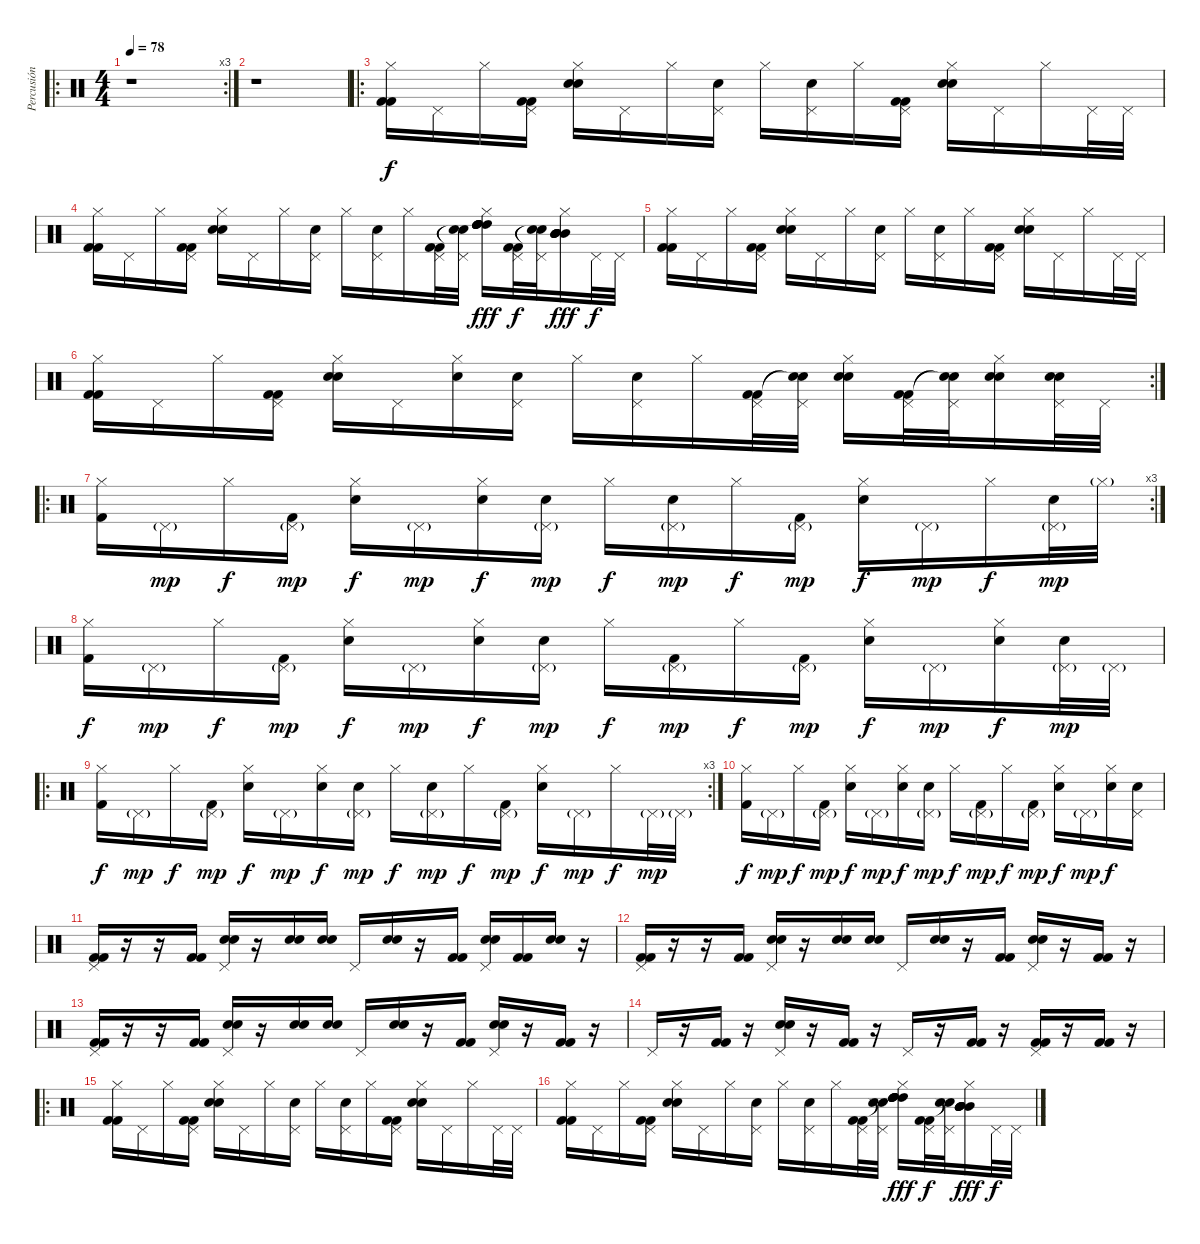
\track ("Percusión" "Percusión") {instrument percussion}
\staff {score}
\articulation defaults
\ro
\rc 3
\ts (4 4)
\tempo 78
\clef neutral
\ks c
r.1{dy f} |
r.1 |
\ro
("Hi-Hat (closed)" "Kick (hit) 2" "Kick (hit) 2").16 "Pedal Hi-Hat (hit)".16 "Hi-Hat (closed)".16 ("Pedal Hi-Hat (hit)" "Kick (hit) 2" "Kick (hit) 2").16 ("Hi-Hat (closed)" "Electric Snare (hit)" "Electric Snare (hit)").16 "Pedal Hi-Hat (hit)".16 "Hi-Hat (closed)".16 ("Pedal Hi-Hat (hit)" "Electric Snare (hit)").16 "Hi-Hat (closed)".16 ("Pedal Hi-Hat (hit)" "Electric Snare (hit)").16 "Hi-Hat (closed)".16 ("Pedal Hi-Hat (hit)" "Kick (hit) 2" "Kick (hit) 2").16 ("Hi-Hat (closed)" "Electric Snare (hit)" "Electric Snare (hit)").16 "Pedal Hi-Hat (hit)".16 "Hi-Hat (closed)".16 "Pedal Hi-Hat (hit)".32 "Pedal Hi-Hat (hit)".32 |
("Hi-Hat (closed)" "Kick (hit) 2" "Kick (hit) 2").16 "Pedal Hi-Hat (hit)".16 "Hi-Hat (closed)".16 ("Pedal Hi-Hat (hit)" "Kick (hit) 2" "Kick (hit) 2").16 ("Hi-Hat (closed)" "Electric Snare (hit)" "Electric Snare (hit)").16 "Pedal Hi-Hat (hit)".16 "Hi-Hat (closed)".16 ("Pedal Hi-Hat (hit)" "Electric Snare (hit)").16 "Hi-Hat (closed)".16 ("Pedal Hi-Hat (hit)" "Electric Snare (hit)").16 "Hi-Hat (closed)".16 ("Pedal Hi-Hat (hit)" "Kick (hit) 2" "Kick (hit) 2").32 ("Pedal Hi-Hat (hit)" "Snare (hit)"{t} "Snare (hit)"{t}).32 ("Hi-Hat (closed)" "High Tom (hit)" "High Tom (hit)" "High Tom (hit)" "High Tom (hit)" "High Tom (hit)").16{dy fff} ("Pedal Hi-Hat (hit)" "Kick (hit) 2" "Kick (hit) 2").32{dy f} ("Pedal Hi-Hat (hit)" "Snare (hit)"{t} "Snare (hit)"{t}).32 ("Hi-Hat (closed)" "Mid Tom (hit)" "Mid Tom (hit)" "Mid Tom (hit)" "Mid Tom (hit)" "Mid Tom (hit)").16{dy fff} "Pedal Hi-Hat (hit)".32{dy f} "Pedal Hi-Hat (hit)".32 |
("Hi-Hat (closed)" "Kick (hit) 2" "Kick (hit) 2").16 "Pedal Hi-Hat (hit)".16 "Hi-Hat (closed)".16 ("Pedal Hi-Hat (hit)" "Kick (hit) 2" "Kick (hit) 2").16 ("Hi-Hat (closed)" "Electric Snare (hit)" "Electric Snare (hit)").16 "Pedal Hi-Hat (hit)".16 "Hi-Hat (closed)".16 ("Pedal Hi-Hat (hit)" "Electric Snare (hit)").16 "Hi-Hat (closed)".16 ("Pedal Hi-Hat (hit)" "Electric Snare (hit)").16 "Hi-Hat (closed)".16 ("Pedal Hi-Hat (hit)" "Kick (hit) 2" "Kick (hit) 2").16 ("Hi-Hat (closed)" "Electric Snare (hit)" "Electric Snare (hit)").16 "Pedal Hi-Hat (hit)".16 "Hi-Hat (closed)".16 "Pedal Hi-Hat (hit)".32 "Pedal Hi-Hat (hit)".32 |
\rc 2
("Hi-Hat (closed)" "Kick (hit) 2" "Kick (hit) 2").16 "Pedal Hi-Hat (hit)".16 "Hi-Hat (closed)".16 ("Pedal Hi-Hat (hit)" "Kick (hit) 2" "Kick (hit) 2").16 ("Hi-Hat (closed)" "Electric Snare (hit)" "Electric Snare (hit)").16 "Pedal Hi-Hat (hit)".16 ("Hi-Hat (closed)" "Electric Snare (hit)").16 ("Pedal Hi-Hat (hit)" "Electric Snare (hit)").16 "Hi-Hat (closed)".16 ("Pedal Hi-Hat (hit)" "Electric Snare (hit)").16 "Hi-Hat (closed)".16 ("Pedal Hi-Hat (hit)" "Kick (hit) 2" "Kick (hit) 2").32 ("Pedal Hi-Hat (hit)" "Snare (hit)"{t} "Snare (hit)"{t}).32 ("Hi-Hat (closed)" "Electric Snare (hit)" "Electric Snare (hit)").16 ("Pedal Hi-Hat (hit)" "Kick (hit) 2" "Kick (hit) 2").32 ("Pedal Hi-Hat (hit)" "Snare (hit)"{t} "Snare (hit)"{t}).32 ("Hi-Hat (closed)" "Electric Snare (hit)" "Electric Snare (hit)").16 ("Pedal Hi-Hat (hit)" "Electric Snare (hit)" "Electric Snare (hit)").32 "Pedal Hi-Hat (hit)".32 |
\ro
\rc 3
("Hi-Hat (closed)" "Kick (hit) 2").16 "Pedal Hi-Hat (hit)"{g}.16{dy mp} "Hi-Hat (closed)".16{dy f} ("Pedal Hi-Hat (hit)"{g} "Kick (hit) 2").16{dy mp} ("Hi-Hat (closed)" "Electric Snare (hit)").16{dy f} "Pedal Hi-Hat (hit)"{g}.16{dy mp} ("Hi-Hat (closed)" "Electric Snare (hit)").16{dy f} ("Pedal Hi-Hat (hit)"{g} "Electric Snare (hit)").16{dy mp} "Hi-Hat (closed)".16{dy f} ("Pedal Hi-Hat (hit)"{g} "Electric Snare (hit)").16{dy mp} "Hi-Hat (closed)".16{dy f} ("Pedal Hi-Hat (hit)"{g} "Kick (hit) 2").16{dy mp} ("Hi-Hat (closed)" "Electric Snare (hit)").16{dy f} "Pedal Hi-Hat (hit)"{g}.16{dy mp} "Hi-Hat (closed)".16{dy f} ("Pedal Hi-Hat (hit)"{g} "Electric Snare (hit)").32{dy mp} "Hi-Hat (closed)"{g}.32 |
("Hi-Hat (closed)" "Kick (hit) 2").16{dy f} "Pedal Hi-Hat (hit)"{g}.16{dy mp} "Hi-Hat (closed)".16{dy f} ("Pedal Hi-Hat (hit)"{g} "Kick (hit) 2").16{dy mp} ("Hi-Hat (closed)" "Electric Snare (hit)").16{dy f} "Pedal Hi-Hat (hit)"{g}.16{dy mp} ("Hi-Hat (closed)" "Electric Snare (hit)").16{dy f} ("Pedal Hi-Hat (hit)"{g} "Electric Snare (hit)").16{dy mp} "Hi-Hat (closed)".16{dy f} ("Pedal Hi-Hat (hit)"{g} "Kick (hit) 2").16{dy mp} "Hi-Hat (closed)".16{dy f} ("Pedal Hi-Hat (hit)"{g} "Kick (hit) 2").16{dy mp} ("Hi-Hat (closed)" "Electric Snare (hit)").16{dy f} "Pedal Hi-Hat (hit)"{g}.16{dy mp} ("Hi-Hat (closed)" "Electric Snare (hit)").16{dy f} ("Pedal Hi-Hat (hit)"{g} "Electric Snare (hit)").32{dy mp} "Pedal Hi-Hat (hit)"{g}.32 |
\ro
\rc 3
("Hi-Hat (closed)" "Kick (hit) 2").16{dy f} "Pedal Hi-Hat (hit)"{g}.16{dy mp} "Hi-Hat (closed)".16{dy f} ("Pedal Hi-Hat (hit)"{g} "Kick (hit) 2").16{dy mp} ("Hi-Hat (closed)" "Electric Snare (hit)").16{dy f} "Pedal Hi-Hat (hit)"{g}.16{dy mp} ("Hi-Hat (closed)" "Electric Snare (hit)").16{dy f} ("Pedal Hi-Hat (hit)"{g} "Electric Snare (hit)").16{dy mp} "Hi-Hat (closed)".16{dy f} ("Pedal Hi-Hat (hit)"{g} "Electric Snare (hit)").16{dy mp} "Hi-Hat (closed)".16{dy f} ("Pedal Hi-Hat (hit)"{g} "Kick (hit) 2").16{dy mp} ("Hi-Hat (closed)" "Electric Snare (hit)").16{dy f} "Pedal Hi-Hat (hit)"{g}.16{dy mp} "Hi-Hat (closed)".16{dy f} "Pedal Hi-Hat (hit)"{g}.32{dy mp} "Pedal Hi-Hat (hit)"{g}.32 |
("Hi-Hat (closed)" "Kick (hit) 2").16{dy f} "Pedal Hi-Hat (hit)"{g}.16{dy mp} "Hi-Hat (closed)".16{dy f} ("Pedal Hi-Hat (hit)"{g} "Kick (hit) 2").16{dy mp} ("Hi-Hat (closed)" "Electric Snare (hit)").16{dy f} "Pedal Hi-Hat (hit)"{g}.16{dy mp} ("Hi-Hat (closed)" "Electric Snare (hit)").16{dy f} ("Pedal Hi-Hat (hit)"{g} "Electric Snare (hit)").16{dy mp} "Hi-Hat (closed)".16{dy f} ("Pedal Hi-Hat (hit)"{g} "Kick (hit) 2").16{dy mp} "Hi-Hat (closed)".16{dy f} ("Pedal Hi-Hat (hit)"{g} "Kick (hit) 2").16{dy mp} ("Hi-Hat (closed)" "Electric Snare (hit)").16{dy f} "Pedal Hi-Hat (hit)"{g}.16{dy mp} ("Hi-Hat (closed)" "Electric Snare (hit)").16{dy f} ("Pedal Hi-Hat (hit)" "Electric Snare (hit)").16 |
("Pedal Hi-Hat (hit)" "Kick (hit) 2" "Kick (hit) 2").16 r.16 r.16 ("Kick (hit) 2" "Kick (hit) 2").16 ("Pedal Hi-Hat (hit)" "Electric Snare (hit)" "Electric Snare (hit)").16 r.16 ("Electric Snare (hit)" "Electric Snare (hit)").16 ("Electric Snare (hit)" "Electric Snare (hit)").16 "Pedal Hi-Hat (hit)".16 ("Electric Snare (hit)" "Electric Snare (hit)").16 r.16 ("Kick (hit) 2" "Kick (hit) 2").16 ("Pedal Hi-Hat (hit)" "Electric Snare (hit)" "Electric Snare (hit)").16 ("Kick (hit) 2" "Kick (hit) 2").16 ("Electric Snare (hit)" "Electric Snare (hit)").16 r.16 |
("Pedal Hi-Hat (hit)" "Kick (hit) 2" "Kick (hit) 2").16 r.16 r.16 ("Kick (hit) 2" "Kick (hit) 2").16 ("Pedal Hi-Hat (hit)" "Electric Snare (hit)" "Electric Snare (hit)").16 r.16 ("Electric Snare (hit)" "Electric Snare (hit)").16 ("Electric Snare (hit)" "Electric Snare (hit)").16 "Pedal Hi-Hat (hit)".16 ("Electric Snare (hit)" "Electric Snare (hit)").16 r.16 ("Kick (hit) 2" "Kick (hit) 2").16 ("Pedal Hi-Hat (hit)" "Electric Snare (hit)" "Electric Snare (hit)").16 r.16 ("Kick (hit) 2" "Kick (hit) 2").16 r.16 |
("Pedal Hi-Hat (hit)" "Kick (hit) 2" "Kick (hit) 2").16 r.16 r.16 ("Kick (hit) 2" "Kick (hit) 2").16 ("Pedal Hi-Hat (hit)" "Electric Snare (hit)" "Electric Snare (hit)").16 r.16 ("Electric Snare (hit)" "Electric Snare (hit)").16 ("Electric Snare (hit)" "Electric Snare (hit)").16 "Pedal Hi-Hat (hit)".16 ("Electric Snare (hit)" "Electric Snare (hit)").16 r.16 ("Kick (hit) 2" "Kick (hit) 2").16 ("Pedal Hi-Hat (hit)" "Electric Snare (hit)" "Electric Snare (hit)").16 r.16 ("Kick (hit) 2" "Kick (hit) 2").16 r.16 |
"Pedal Hi-Hat (hit)".16 r.16 ("Kick (hit) 2" "Kick (hit) 2").16 r.16 ("Pedal Hi-Hat (hit)" "Electric Snare (hit)" "Electric Snare (hit)").16 r.16 ("Kick (hit) 2" "Kick (hit) 2").16 r.16 "Pedal Hi-Hat (hit)".16 r.16 ("Kick (hit) 2" "Kick (hit) 2").16 r.16 ("Pedal Hi-Hat (hit)" "Kick (hit) 2" "Kick (hit) 2").16 r.16 ("Kick (hit) 2" "Kick (hit) 2").16 r.16 |
\ro
("Hi-Hat (closed)" "Kick (hit) 2" "Kick (hit) 2").16 "Pedal Hi-Hat (hit)".16 "Hi-Hat (closed)".16 ("Pedal Hi-Hat (hit)" "Kick (hit) 2" "Kick (hit) 2").16 ("Hi-Hat (closed)" "Electric Snare (hit)" "Electric Snare (hit)").16 "Pedal Hi-Hat (hit)".16 "Hi-Hat (closed)".16 ("Pedal Hi-Hat (hit)" "Electric Snare (hit)").16 "Hi-Hat (closed)".16 ("Pedal Hi-Hat (hit)" "Electric Snare (hit)").16 "Hi-Hat (closed)".16 ("Pedal Hi-Hat (hit)" "Kick (hit) 2" "Kick (hit) 2").16 ("Hi-Hat (closed)" "Electric Snare (hit)" "Electric Snare (hit)").16 "Pedal Hi-Hat (hit)".16 "Hi-Hat (closed)".16 "Pedal Hi-Hat (hit)".32 "Pedal Hi-Hat (hit)".32 |
("Hi-Hat (closed)" "Kick (hit) 2" "Kick (hit) 2").16 "Pedal Hi-Hat (hit)".16 "Hi-Hat (closed)".16 ("Pedal Hi-Hat (hit)" "Kick (hit) 2" "Kick (hit) 2").16 ("Hi-Hat (closed)" "Electric Snare (hit)" "Electric Snare (hit)").16 "Pedal Hi-Hat (hit)".16 "Hi-Hat (closed)".16 ("Pedal Hi-Hat (hit)" "Electric Snare (hit)").16 "Hi-Hat (closed)".16 ("Pedal Hi-Hat (hit)" "Electric Snare (hit)").16 "Hi-Hat (closed)".16 ("Pedal Hi-Hat (hit)" "Kick (hit) 2" "Kick (hit) 2").32 ("Pedal Hi-Hat (hit)" "Snare (hit)"{t} "Snare (hit)"{t}).32 ("Hi-Hat (closed)" "High Tom (hit)" "High Tom (hit)" "High Tom (hit)" "High Tom (hit)" "High Tom (hit)").16{dy fff} ("Pedal Hi-Hat (hit)" "Kick (hit) 2" "Kick (hit) 2").32{dy f} ("Pedal Hi-Hat (hit)" "Snare (hit)"{t} "Snare (hit)"{t}).32 ("Hi-Hat (closed)" "Mid Tom (hit)" "Mid Tom (hit)" "Mid Tom (hit)" "Mid Tom (hit)" "Mid Tom (hit)").16{dy fff} "Pedal Hi-Hat (hit)".32{dy f} "Pedal Hi-Hat (hit)".32
